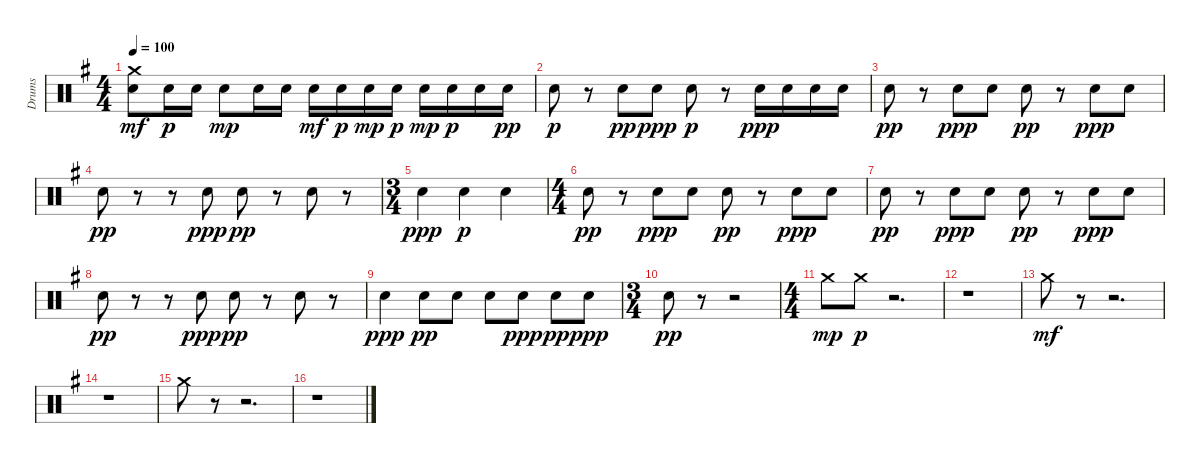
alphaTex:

\track ("Drums" "Drums") {instrument percussion}
\staff {score}
\articulation defaults
\ts (4 4)
\tempo 100
\clef neutral
\ks eminor
("Crash medium (hit)" "Snare (hit) 2").8{dy mf} "Snare (hit) 2".16{dy p} "Snare (hit) 2".16 "Snare (hit) 2".8{dy mp} "Snare (hit) 2".16 "Snare (hit) 2".16 "Snare (hit) 2".16{dy mf} "Snare (hit) 2".16{dy p} "Snare (hit) 2".16{dy mp} "Snare (hit) 2".16{dy p} "Snare (hit) 2".16{dy mp} "Snare (hit) 2".16{dy p} "Snare (hit) 2".16 "Snare (hit) 2".16{dy pp} |
"Snare (hit) 2".8{dy p} r.8 "Snare (hit) 2".8{dy pp} "Snare (hit) 2".8{dy ppp} "Snare (hit) 2".8{dy p} r.8 "Snare (hit) 2".16{dy ppp} "Snare (hit) 2".16 "Snare (hit) 2".16 "Snare (hit) 2".16 |
"Snare (hit) 2".8{dy pp} r.8 "Snare (hit) 2".8{dy ppp} "Snare (hit) 2".8 "Snare (hit) 2".8{dy pp} r.8 "Snare (hit) 2".8{dy ppp} "Snare (hit) 2".8 |
"Snare (hit) 2".8{dy pp} r.8 r.8 "Snare (hit) 2".8{dy ppp} "Snare (hit) 2".8{dy pp} r.8 "Snare (hit) 2".8 r.8 |
\ts (3 4)
"Snare (hit) 2".4{dy ppp} "Snare (hit) 2".4{dy p} "Snare (hit) 2".4 |
\ts (4 4)
"Snare (hit) 2".8{dy pp} r.8 "Snare (hit) 2".8{dy ppp} "Snare (hit) 2".8 "Snare (hit) 2".8{dy pp} r.8 "Snare (hit) 2".8{dy ppp} "Snare (hit) 2".8 |
"Snare (hit) 2".8{dy pp} r.8 "Snare (hit) 2".8{dy ppp} "Snare (hit) 2".8 "Snare (hit) 2".8{dy pp} r.8 "Snare (hit) 2".8{dy ppp} "Snare (hit) 2".8 |
"Snare (hit) 2".8{dy pp} r.8 r.8 "Snare (hit) 2".8{dy ppp} "Snare (hit) 2".8{dy pp} r.8 "Snare (hit) 2".8 r.8 |
"Snare (hit) 2".4{dy ppp} "Snare (hit) 2".8{dy pp} "Snare (hit) 2".8 "Snare (hit) 2".8 "Snare (hit) 2".8{dy ppp} "Snare (hit) 2".8{dy pp} "Snare (hit) 2".8{dy ppp} |
\ts (3 4)
"Snare (hit) 2".8{dy pp} r.8 r.2 |
\ts (4 4)
"Crash medium (hit)".8{dy mp} "Crash medium (hit)".8{dy p} r.2{d} |
r.1 |
"Crash medium (hit)".8{dy mf} r.8 r.2{d} |
r.1 |
"Crash medium (hit)".8 r.8 r.2{d} |
r.1
